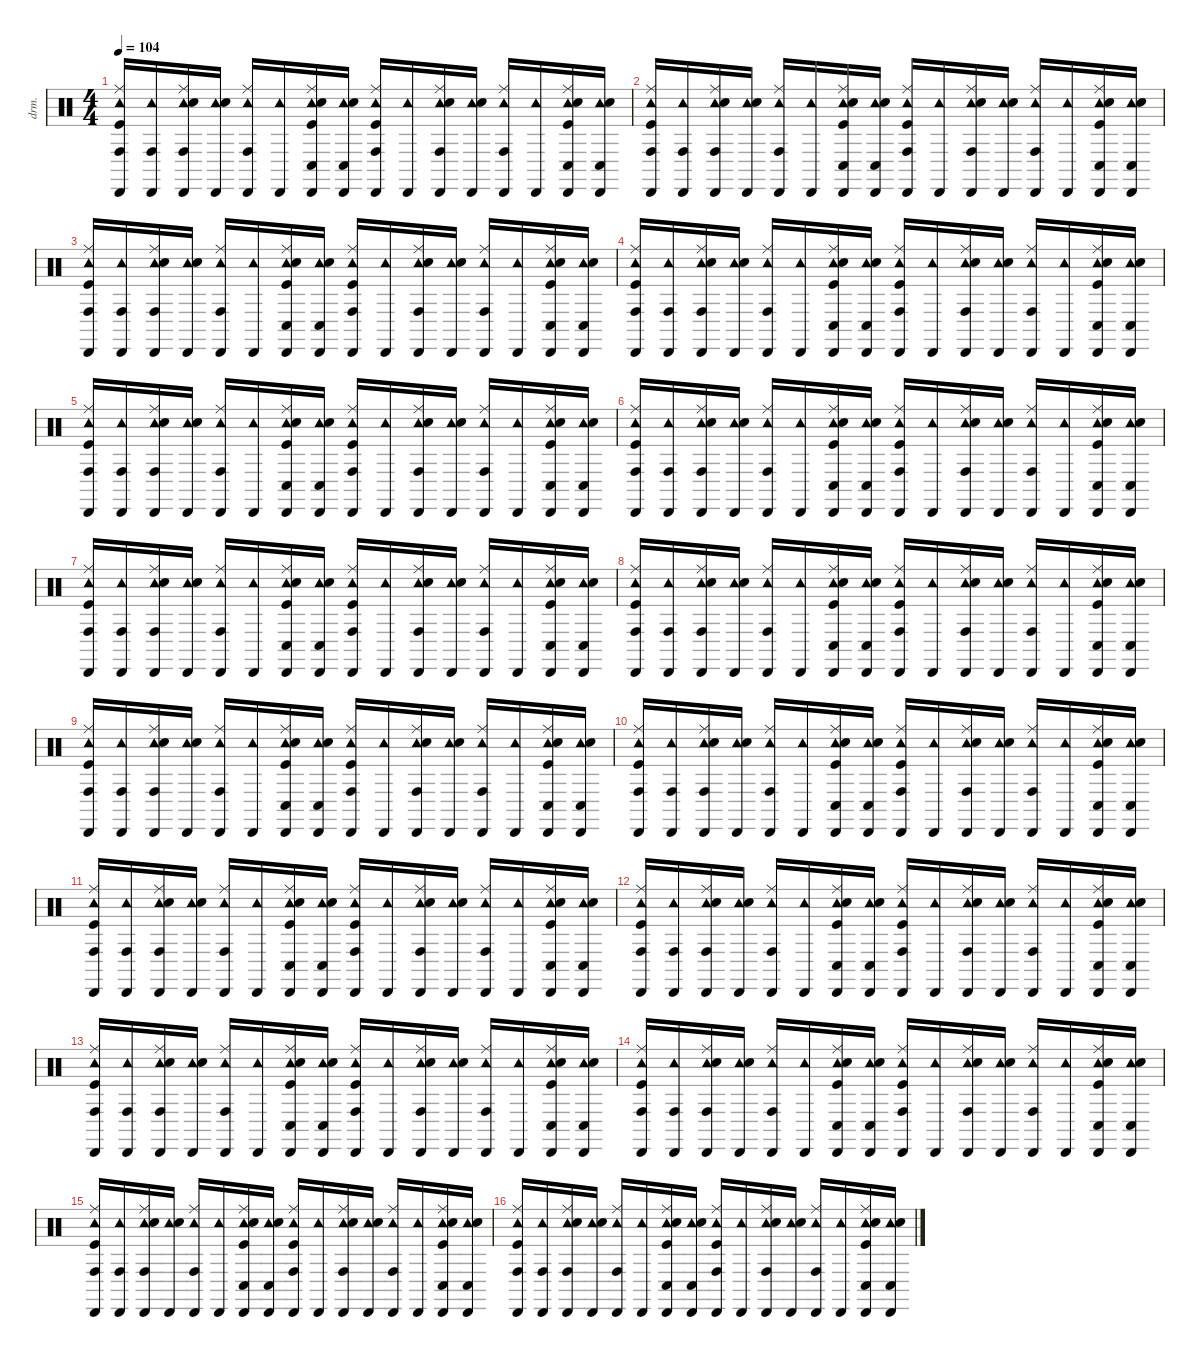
\defaultSystemsLayout 4
\hideDynamics
\bracketExtendMode nobrackets
\otherSystemsTrackNameOrientation horizontal
\track ("Drums" "drm.") {instrument percussion}
\staff {score}
\articulation defaults
\ts (4 4)
\tempo 104
\clef neutral
\ks c
("Cabasa (hit)" "Conga high (hit)" "Tambourine (hit)" "Ride (middle)" "Kick (hit)").16{dy f beam Up} ("Cabasa (hit)" "Conga high (hit)" "Tambourine (hit)").16{beam Up} ("Cabasa (hit)" "Conga high (hit)" "Tambourine (hit)" "Ride (middle)" "Snare (hit) 2").16{beam Up} ("Cabasa (hit)" "Tambourine (hit)" "Snare (hit) 2").16{beam Up} ("Cabasa (hit)" "Conga high (hit)" "Tambourine (hit)" "Ride (middle)").16{beam Up} ("Cabasa (hit)" "Tambourine (hit)").16{beam Up} ("Cabasa (hit)" "Conga low (hit)" "Tambourine (hit)" "Ride (middle)" "Snare (hit) 2" "Kick (hit)").16{beam Up} ("Cabasa (hit)" "Conga low (hit)" "Tambourine (hit)" "Snare (hit) 2").16{beam Up} ("Cabasa (hit)" "Conga high (hit)" "Tambourine (hit)" "Ride (middle)" "Kick (hit)").16{beam Up} ("Cabasa (hit)" "Tambourine (hit)").16{beam Up} ("Cabasa (hit)" "Conga high (hit)" "Tambourine (hit)" "Ride (middle)" "Snare (hit) 2").16{beam Up} ("Cabasa (hit)" "Tambourine (hit)" "Snare (hit) 2").16{beam Up} ("Cabasa (hit)" "Conga high (hit)" "Tambourine (hit)" "Ride (middle)").16{beam Up} ("Cabasa (hit)" "Tambourine (hit)").16{beam Up} ("Cabasa (hit)" "Conga low (hit)" "Tambourine (hit)" "Ride (middle)" "Snare (hit) 2" "Kick (hit)").16{beam Up} ("Cabasa (hit)" "Conga low (hit)" "Tambourine (hit)" "Snare (hit) 2").16{beam Up} |
("Cabasa (hit)" "Conga high (hit)" "Tambourine (hit)" "Ride (middle)" "Kick (hit)").16{beam Up} ("Cabasa (hit)" "Conga high (hit)" "Tambourine (hit)").16{beam Up} ("Cabasa (hit)" "Conga high (hit)" "Tambourine (hit)" "Ride (middle)" "Snare (hit) 2").16{beam Up} ("Cabasa (hit)" "Tambourine (hit)" "Snare (hit) 2").16{beam Up} ("Cabasa (hit)" "Conga high (hit)" "Tambourine (hit)" "Ride (middle)").16{beam Up} ("Cabasa (hit)" "Tambourine (hit)").16{beam Up} ("Cabasa (hit)" "Conga low (hit)" "Tambourine (hit)" "Ride (middle)" "Snare (hit) 2" "Kick (hit)").16{beam Up} ("Cabasa (hit)" "Conga low (hit)" "Tambourine (hit)" "Snare (hit) 2").16{beam Up} ("Cabasa (hit)" "Conga high (hit)" "Tambourine (hit)" "Ride (middle)" "Kick (hit)").16{beam Up} ("Cabasa (hit)" "Tambourine (hit)").16{beam Up} ("Cabasa (hit)" "Conga high (hit)" "Tambourine (hit)" "Ride (middle)" "Snare (hit) 2").16{beam Up} ("Cabasa (hit)" "Tambourine (hit)" "Snare (hit) 2").16{beam Up} ("Cabasa (hit)" "Conga high (hit)" "Tambourine (hit)" "Ride (middle)").16{beam Up} ("Cabasa (hit)" "Tambourine (hit)").16{beam Up} ("Cabasa (hit)" "Conga low (hit)" "Tambourine (hit)" "Ride (middle)" "Snare (hit) 2" "Kick (hit)").16{beam Up} ("Cabasa (hit)" "Conga low (hit)" "Tambourine (hit)" "Snare (hit) 2").16{beam Up} |
("Cabasa (hit)" "Conga high (hit)" "Tambourine (hit)" "Ride (middle)" "Kick (hit)").16{beam Up} ("Cabasa (hit)" "Conga high (hit)" "Tambourine (hit)").16{beam Up} ("Cabasa (hit)" "Conga high (hit)" "Tambourine (hit)" "Ride (middle)" "Snare (hit) 2").16{beam Up} ("Cabasa (hit)" "Tambourine (hit)" "Snare (hit) 2").16{beam Up} ("Cabasa (hit)" "Conga high (hit)" "Tambourine (hit)" "Ride (middle)").16{beam Up} ("Cabasa (hit)" "Tambourine (hit)").16{beam Up} ("Cabasa (hit)" "Conga low (hit)" "Tambourine (hit)" "Ride (middle)" "Snare (hit) 2" "Kick (hit)").16{beam Up} ("Cabasa (hit)" "Conga low (hit)" "Tambourine (hit)" "Snare (hit) 2").16{beam Up} ("Cabasa (hit)" "Conga high (hit)" "Tambourine (hit)" "Ride (middle)" "Kick (hit)").16{beam Up} ("Cabasa (hit)" "Tambourine (hit)").16{beam Up} ("Cabasa (hit)" "Conga high (hit)" "Tambourine (hit)" "Ride (middle)" "Snare (hit) 2").16{beam Up} ("Cabasa (hit)" "Tambourine (hit)" "Snare (hit) 2").16{beam Up} ("Cabasa (hit)" "Conga high (hit)" "Tambourine (hit)" "Ride (middle)").16{beam Up} ("Cabasa (hit)" "Tambourine (hit)").16{beam Up} ("Cabasa (hit)" "Conga low (hit)" "Tambourine (hit)" "Ride (middle)" "Snare (hit) 2" "Kick (hit)").16{beam Up} ("Cabasa (hit)" "Conga low (hit)" "Tambourine (hit)" "Snare (hit) 2").16{beam Up} |
("Cabasa (hit)" "Conga high (hit)" "Tambourine (hit)" "Ride (middle)" "Kick (hit)").16{beam Up} ("Cabasa (hit)" "Conga high (hit)" "Tambourine (hit)").16{beam Up} ("Cabasa (hit)" "Conga high (hit)" "Tambourine (hit)" "Ride (middle)" "Snare (hit) 2").16{beam Up} ("Cabasa (hit)" "Tambourine (hit)" "Snare (hit) 2").16{beam Up} ("Cabasa (hit)" "Conga high (hit)" "Tambourine (hit)" "Ride (middle)").16{beam Up} ("Cabasa (hit)" "Tambourine (hit)").16{beam Up} ("Cabasa (hit)" "Conga low (hit)" "Tambourine (hit)" "Ride (middle)" "Snare (hit) 2" "Kick (hit)").16{beam Up} ("Cabasa (hit)" "Conga low (hit)" "Tambourine (hit)" "Snare (hit) 2").16{beam Up} ("Cabasa (hit)" "Conga high (hit)" "Tambourine (hit)" "Ride (middle)" "Kick (hit)").16{beam Up} ("Cabasa (hit)" "Tambourine (hit)").16{beam Up} ("Cabasa (hit)" "Conga high (hit)" "Tambourine (hit)" "Ride (middle)" "Snare (hit) 2").16{beam Up} ("Cabasa (hit)" "Tambourine (hit)" "Snare (hit) 2").16{beam Up} ("Cabasa (hit)" "Conga high (hit)" "Tambourine (hit)" "Ride (middle)").16{beam Up} ("Cabasa (hit)" "Tambourine (hit)").16{beam Up} ("Cabasa (hit)" "Conga low (hit)" "Tambourine (hit)" "Ride (middle)" "Snare (hit) 2" "Kick (hit)").16{beam Up} ("Cabasa (hit)" "Conga low (hit)" "Tambourine (hit)" "Snare (hit) 2").16{beam Up} |
("Cabasa (hit)" "Conga high (hit)" "Tambourine (hit)" "Ride (middle)" "Kick (hit)").16{beam Up} ("Cabasa (hit)" "Conga high (hit)" "Tambourine (hit)").16{beam Up} ("Cabasa (hit)" "Conga high (hit)" "Tambourine (hit)" "Ride (middle)" "Snare (hit) 2").16{beam Up} ("Cabasa (hit)" "Tambourine (hit)" "Snare (hit) 2").16{beam Up} ("Cabasa (hit)" "Conga high (hit)" "Tambourine (hit)" "Ride (middle)").16{beam Up} ("Cabasa (hit)" "Tambourine (hit)").16{beam Up} ("Cabasa (hit)" "Conga low (hit)" "Tambourine (hit)" "Ride (middle)" "Snare (hit) 2" "Kick (hit)").16{beam Up} ("Cabasa (hit)" "Conga low (hit)" "Tambourine (hit)" "Snare (hit) 2").16{beam Up} ("Cabasa (hit)" "Conga high (hit)" "Tambourine (hit)" "Ride (middle)" "Kick (hit)").16{beam Up} ("Cabasa (hit)" "Tambourine (hit)").16{beam Up} ("Cabasa (hit)" "Conga high (hit)" "Tambourine (hit)" "Ride (middle)" "Snare (hit) 2").16{beam Up} ("Cabasa (hit)" "Tambourine (hit)" "Snare (hit) 2").16{beam Up} ("Cabasa (hit)" "Conga high (hit)" "Tambourine (hit)" "Ride (middle)").16{beam Up} ("Cabasa (hit)" "Tambourine (hit)").16{beam Up} ("Cabasa (hit)" "Conga low (hit)" "Tambourine (hit)" "Ride (middle)" "Snare (hit) 2" "Kick (hit)").16{beam Up} ("Cabasa (hit)" "Conga low (hit)" "Tambourine (hit)" "Snare (hit) 2").16{beam Up} |
("Cabasa (hit)" "Conga high (hit)" "Tambourine (hit)" "Ride (middle)" "Kick (hit)").16{beam Up} ("Cabasa (hit)" "Conga high (hit)" "Tambourine (hit)").16{beam Up} ("Cabasa (hit)" "Conga high (hit)" "Tambourine (hit)" "Ride (middle)" "Snare (hit) 2").16{beam Up} ("Cabasa (hit)" "Tambourine (hit)" "Snare (hit) 2").16{beam Up} ("Cabasa (hit)" "Conga high (hit)" "Tambourine (hit)" "Ride (middle)").16{beam Up} ("Cabasa (hit)" "Tambourine (hit)").16{beam Up} ("Cabasa (hit)" "Conga low (hit)" "Tambourine (hit)" "Ride (middle)" "Snare (hit) 2" "Kick (hit)").16{beam Up} ("Cabasa (hit)" "Conga low (hit)" "Tambourine (hit)" "Snare (hit) 2").16{beam Up} ("Cabasa (hit)" "Conga high (hit)" "Tambourine (hit)" "Ride (middle)" "Kick (hit)").16{beam Up} ("Cabasa (hit)" "Tambourine (hit)").16{beam Up} ("Cabasa (hit)" "Conga high (hit)" "Tambourine (hit)" "Ride (middle)" "Snare (hit) 2").16{beam Up} ("Cabasa (hit)" "Tambourine (hit)" "Snare (hit) 2").16{beam Up} ("Cabasa (hit)" "Conga high (hit)" "Tambourine (hit)" "Ride (middle)").16{beam Up} ("Cabasa (hit)" "Tambourine (hit)").16{beam Up} ("Cabasa (hit)" "Conga low (hit)" "Tambourine (hit)" "Ride (middle)" "Snare (hit) 2" "Kick (hit)").16{beam Up} ("Cabasa (hit)" "Conga low (hit)" "Tambourine (hit)" "Snare (hit) 2").16{beam Up} |
("Cabasa (hit)" "Conga high (hit)" "Tambourine (hit)" "Ride (middle)" "Kick (hit)").16{beam Up} ("Cabasa (hit)" "Conga high (hit)" "Tambourine (hit)").16{beam Up} ("Cabasa (hit)" "Conga high (hit)" "Tambourine (hit)" "Ride (middle)" "Snare (hit) 2").16{beam Up} ("Cabasa (hit)" "Tambourine (hit)" "Snare (hit) 2").16{beam Up} ("Cabasa (hit)" "Conga high (hit)" "Tambourine (hit)" "Ride (middle)").16{beam Up} ("Cabasa (hit)" "Tambourine (hit)").16{beam Up} ("Cabasa (hit)" "Conga low (hit)" "Tambourine (hit)" "Ride (middle)" "Snare (hit) 2" "Kick (hit)").16{beam Up} ("Cabasa (hit)" "Conga low (hit)" "Tambourine (hit)" "Snare (hit) 2").16{beam Up} ("Cabasa (hit)" "Conga high (hit)" "Tambourine (hit)" "Ride (middle)" "Kick (hit)").16{beam Up} ("Cabasa (hit)" "Tambourine (hit)").16{beam Up} ("Cabasa (hit)" "Conga high (hit)" "Tambourine (hit)" "Ride (middle)" "Snare (hit) 2").16{beam Up} ("Cabasa (hit)" "Tambourine (hit)" "Snare (hit) 2").16{beam Up} ("Cabasa (hit)" "Conga high (hit)" "Tambourine (hit)" "Ride (middle)").16{beam Up} ("Cabasa (hit)" "Tambourine (hit)").16{beam Up} ("Cabasa (hit)" "Conga low (hit)" "Tambourine (hit)" "Ride (middle)" "Snare (hit) 2" "Kick (hit)").16{beam Up} ("Cabasa (hit)" "Conga low (hit)" "Tambourine (hit)" "Snare (hit) 2").16{beam Up} |
("Cabasa (hit)" "Conga high (hit)" "Tambourine (hit)" "Ride (middle)" "Kick (hit)").16{beam Up} ("Cabasa (hit)" "Conga high (hit)" "Tambourine (hit)").16{beam Up} ("Cabasa (hit)" "Conga high (hit)" "Tambourine (hit)" "Ride (middle)" "Snare (hit) 2").16{beam Up} ("Cabasa (hit)" "Tambourine (hit)" "Snare (hit) 2").16{beam Up} ("Cabasa (hit)" "Conga high (hit)" "Tambourine (hit)" "Ride (middle)").16{beam Up} ("Cabasa (hit)" "Tambourine (hit)").16{beam Up} ("Cabasa (hit)" "Conga low (hit)" "Tambourine (hit)" "Ride (middle)" "Snare (hit) 2" "Kick (hit)").16{beam Up} ("Cabasa (hit)" "Conga low (hit)" "Tambourine (hit)" "Snare (hit) 2").16{beam Up} ("Cabasa (hit)" "Conga high (hit)" "Tambourine (hit)" "Ride (middle)" "Kick (hit)").16{beam Up} ("Cabasa (hit)" "Tambourine (hit)").16{beam Up} ("Cabasa (hit)" "Conga high (hit)" "Tambourine (hit)" "Ride (middle)" "Snare (hit) 2").16{beam Up} ("Cabasa (hit)" "Tambourine (hit)" "Snare (hit) 2").16{beam Up} ("Cabasa (hit)" "Conga high (hit)" "Tambourine (hit)" "Ride (middle)").16{beam Up} ("Cabasa (hit)" "Tambourine (hit)").16{beam Up} ("Cabasa (hit)" "Conga low (hit)" "Tambourine (hit)" "Ride (middle)" "Snare (hit) 2" "Kick (hit)").16{beam Up} ("Cabasa (hit)" "Conga low (hit)" "Tambourine (hit)" "Snare (hit) 2").16{beam Up} |
("Cabasa (hit)" "Conga high (hit)" "Tambourine (hit)" "Ride (middle)" "Kick (hit)").16{beam Up} ("Cabasa (hit)" "Conga high (hit)" "Tambourine (hit)").16{beam Up} ("Cabasa (hit)" "Conga high (hit)" "Tambourine (hit)" "Ride (middle)" "Snare (hit) 2").16{beam Up} ("Cabasa (hit)" "Tambourine (hit)" "Snare (hit) 2").16{beam Up} ("Cabasa (hit)" "Conga high (hit)" "Tambourine (hit)" "Ride (middle)").16{beam Up} ("Cabasa (hit)" "Tambourine (hit)").16{beam Up} ("Cabasa (hit)" "Conga low (hit)" "Tambourine (hit)" "Ride (middle)" "Snare (hit) 2" "Kick (hit)").16{beam Up} ("Cabasa (hit)" "Conga low (hit)" "Tambourine (hit)" "Snare (hit) 2").16{beam Up} ("Cabasa (hit)" "Conga high (hit)" "Tambourine (hit)" "Ride (middle)" "Kick (hit)").16{beam Up} ("Cabasa (hit)" "Tambourine (hit)").16{beam Up} ("Cabasa (hit)" "Conga high (hit)" "Tambourine (hit)" "Ride (middle)" "Snare (hit) 2").16{beam Up} ("Cabasa (hit)" "Tambourine (hit)" "Snare (hit) 2").16{beam Up} ("Cabasa (hit)" "Conga high (hit)" "Tambourine (hit)" "Ride (middle)").16{beam Up} ("Cabasa (hit)" "Tambourine (hit)").16{beam Up} ("Cabasa (hit)" "Conga low (hit)" "Tambourine (hit)" "Ride (middle)" "Snare (hit) 2" "Kick (hit)").16{beam Up} ("Cabasa (hit)" "Conga low (hit)" "Tambourine (hit)" "Snare (hit) 2").16{beam Up} |
("Cabasa (hit)" "Conga high (hit)" "Tambourine (hit)" "Ride (middle)" "Kick (hit)").16{beam Up} ("Cabasa (hit)" "Conga high (hit)" "Tambourine (hit)").16{beam Up} ("Cabasa (hit)" "Conga high (hit)" "Tambourine (hit)" "Ride (middle)" "Snare (hit) 2").16{beam Up} ("Cabasa (hit)" "Tambourine (hit)" "Snare (hit) 2").16{beam Up} ("Cabasa (hit)" "Conga high (hit)" "Tambourine (hit)" "Ride (middle)").16{beam Up} ("Cabasa (hit)" "Tambourine (hit)").16{beam Up} ("Cabasa (hit)" "Conga low (hit)" "Tambourine (hit)" "Ride (middle)" "Snare (hit) 2" "Kick (hit)").16{beam Up} ("Cabasa (hit)" "Conga low (hit)" "Tambourine (hit)" "Snare (hit) 2").16{beam Up} ("Cabasa (hit)" "Conga high (hit)" "Tambourine (hit)" "Ride (middle)" "Kick (hit)").16{beam Up} ("Cabasa (hit)" "Tambourine (hit)").16{beam Up} ("Cabasa (hit)" "Conga high (hit)" "Tambourine (hit)" "Ride (middle)" "Snare (hit) 2").16{beam Up} ("Cabasa (hit)" "Tambourine (hit)" "Snare (hit) 2").16{beam Up} ("Cabasa (hit)" "Conga high (hit)" "Tambourine (hit)" "Ride (middle)").16{beam Up} ("Cabasa (hit)" "Tambourine (hit)").16{beam Up} ("Cabasa (hit)" "Conga low (hit)" "Tambourine (hit)" "Ride (middle)" "Snare (hit) 2" "Kick (hit)").16{beam Up} ("Cabasa (hit)" "Conga low (hit)" "Tambourine (hit)" "Snare (hit) 2").16{beam Up} |
("Cabasa (hit)" "Conga high (hit)" "Tambourine (hit)" "Ride (middle)" "Kick (hit)").16{beam Up} ("Cabasa (hit)" "Conga high (hit)" "Tambourine (hit)").16{beam Up} ("Cabasa (hit)" "Conga high (hit)" "Tambourine (hit)" "Ride (middle)" "Snare (hit) 2").16{beam Up} ("Cabasa (hit)" "Tambourine (hit)" "Snare (hit) 2").16{beam Up} ("Cabasa (hit)" "Conga high (hit)" "Tambourine (hit)" "Ride (middle)").16{beam Up} ("Cabasa (hit)" "Tambourine (hit)").16{beam Up} ("Cabasa (hit)" "Conga low (hit)" "Tambourine (hit)" "Ride (middle)" "Snare (hit) 2" "Kick (hit)").16{beam Up} ("Cabasa (hit)" "Conga low (hit)" "Tambourine (hit)" "Snare (hit) 2").16{beam Up} ("Cabasa (hit)" "Conga high (hit)" "Tambourine (hit)" "Ride (middle)" "Kick (hit)").16{beam Up} ("Cabasa (hit)" "Tambourine (hit)").16{beam Up} ("Cabasa (hit)" "Conga high (hit)" "Tambourine (hit)" "Ride (middle)" "Snare (hit) 2").16{beam Up} ("Cabasa (hit)" "Tambourine (hit)" "Snare (hit) 2").16{beam Up} ("Cabasa (hit)" "Conga high (hit)" "Tambourine (hit)" "Ride (middle)").16{beam Up} ("Cabasa (hit)" "Tambourine (hit)").16{beam Up} ("Cabasa (hit)" "Conga low (hit)" "Tambourine (hit)" "Ride (middle)" "Snare (hit) 2" "Kick (hit)").16{beam Up} ("Cabasa (hit)" "Conga low (hit)" "Tambourine (hit)" "Snare (hit) 2").16{beam Up} |
("Cabasa (hit)" "Conga high (hit)" "Tambourine (hit)" "Ride (middle)" "Kick (hit)").16{beam Up} ("Cabasa (hit)" "Conga high (hit)" "Tambourine (hit)").16{beam Up} ("Cabasa (hit)" "Conga high (hit)" "Tambourine (hit)" "Ride (middle)" "Snare (hit) 2").16{beam Up} ("Cabasa (hit)" "Tambourine (hit)" "Snare (hit) 2").16{beam Up} ("Cabasa (hit)" "Conga high (hit)" "Tambourine (hit)" "Ride (middle)").16{beam Up} ("Cabasa (hit)" "Tambourine (hit)").16{beam Up} ("Cabasa (hit)" "Conga low (hit)" "Tambourine (hit)" "Ride (middle)" "Snare (hit) 2" "Kick (hit)").16{beam Up} ("Cabasa (hit)" "Conga low (hit)" "Tambourine (hit)" "Snare (hit) 2").16{beam Up} ("Cabasa (hit)" "Conga high (hit)" "Tambourine (hit)" "Ride (middle)" "Kick (hit)").16{beam Up} ("Cabasa (hit)" "Tambourine (hit)").16{beam Up} ("Cabasa (hit)" "Conga high (hit)" "Tambourine (hit)" "Ride (middle)" "Snare (hit) 2").16{beam Up} ("Cabasa (hit)" "Tambourine (hit)" "Snare (hit) 2").16{beam Up} ("Cabasa (hit)" "Conga high (hit)" "Tambourine (hit)" "Ride (middle)").16{beam Up} ("Cabasa (hit)" "Tambourine (hit)").16{beam Up} ("Cabasa (hit)" "Conga low (hit)" "Tambourine (hit)" "Ride (middle)" "Snare (hit) 2" "Kick (hit)").16{beam Up} ("Cabasa (hit)" "Conga low (hit)" "Tambourine (hit)" "Snare (hit) 2").16{beam Up} |
("Cabasa (hit)" "Conga high (hit)" "Tambourine (hit)" "Ride (middle)" "Kick (hit)").16{beam Up} ("Cabasa (hit)" "Conga high (hit)" "Tambourine (hit)").16{beam Up} ("Cabasa (hit)" "Conga high (hit)" "Tambourine (hit)" "Ride (middle)" "Snare (hit) 2").16{beam Up} ("Cabasa (hit)" "Tambourine (hit)" "Snare (hit) 2").16{beam Up} ("Cabasa (hit)" "Conga high (hit)" "Tambourine (hit)" "Ride (middle)").16{beam Up} ("Cabasa (hit)" "Tambourine (hit)").16{beam Up} ("Cabasa (hit)" "Conga low (hit)" "Tambourine (hit)" "Ride (middle)" "Snare (hit) 2" "Kick (hit)").16{beam Up} ("Cabasa (hit)" "Conga low (hit)" "Tambourine (hit)" "Snare (hit) 2").16{beam Up} ("Cabasa (hit)" "Conga high (hit)" "Tambourine (hit)" "Ride (middle)" "Kick (hit)").16{beam Up} ("Cabasa (hit)" "Tambourine (hit)").16{beam Up} ("Cabasa (hit)" "Conga high (hit)" "Tambourine (hit)" "Ride (middle)" "Snare (hit) 2").16{beam Up} ("Cabasa (hit)" "Tambourine (hit)" "Snare (hit) 2").16{beam Up} ("Cabasa (hit)" "Conga high (hit)" "Tambourine (hit)" "Ride (middle)").16{beam Up} ("Cabasa (hit)" "Tambourine (hit)").16{beam Up} ("Cabasa (hit)" "Conga low (hit)" "Tambourine (hit)" "Ride (middle)" "Snare (hit) 2" "Kick (hit)").16{beam Up} ("Cabasa (hit)" "Conga low (hit)" "Tambourine (hit)" "Snare (hit) 2").16{beam Up} |
("Cabasa (hit)" "Conga high (hit)" "Tambourine (hit)" "Ride (middle)" "Kick (hit)").16{beam Up} ("Cabasa (hit)" "Conga high (hit)" "Tambourine (hit)").16{beam Up} ("Cabasa (hit)" "Conga high (hit)" "Tambourine (hit)" "Ride (middle)" "Snare (hit) 2").16{beam Up} ("Cabasa (hit)" "Tambourine (hit)" "Snare (hit) 2").16{beam Up} ("Cabasa (hit)" "Conga high (hit)" "Tambourine (hit)" "Ride (middle)").16{beam Up} ("Cabasa (hit)" "Tambourine (hit)").16{beam Up} ("Cabasa (hit)" "Conga low (hit)" "Tambourine (hit)" "Ride (middle)" "Snare (hit) 2" "Kick (hit)").16{beam Up} ("Cabasa (hit)" "Conga low (hit)" "Tambourine (hit)" "Snare (hit) 2").16{beam Up} ("Cabasa (hit)" "Conga high (hit)" "Tambourine (hit)" "Ride (middle)" "Kick (hit)").16{beam Up} ("Cabasa (hit)" "Tambourine (hit)").16{beam Up} ("Cabasa (hit)" "Conga high (hit)" "Tambourine (hit)" "Ride (middle)" "Snare (hit) 2").16{beam Up} ("Cabasa (hit)" "Tambourine (hit)" "Snare (hit) 2").16{beam Up} ("Cabasa (hit)" "Conga high (hit)" "Tambourine (hit)" "Ride (middle)").16{beam Up} ("Cabasa (hit)" "Tambourine (hit)").16{beam Up} ("Cabasa (hit)" "Conga low (hit)" "Tambourine (hit)" "Ride (middle)" "Snare (hit) 2" "Kick (hit)").16{beam Up} ("Cabasa (hit)" "Conga low (hit)" "Tambourine (hit)" "Snare (hit) 2").16{beam Up} |
("Cabasa (hit)" "Conga high (hit)" "Tambourine (hit)" "Ride (middle)" "Kick (hit)").16{beam Up} ("Cabasa (hit)" "Conga high (hit)" "Tambourine (hit)").16{beam Up} ("Cabasa (hit)" "Conga high (hit)" "Tambourine (hit)" "Ride (middle)" "Snare (hit) 2").16{beam Up} ("Cabasa (hit)" "Tambourine (hit)" "Snare (hit) 2").16{beam Up} ("Cabasa (hit)" "Conga high (hit)" "Tambourine (hit)" "Ride (middle)").16{beam Up} ("Cabasa (hit)" "Tambourine (hit)").16{beam Up} ("Cabasa (hit)" "Conga low (hit)" "Tambourine (hit)" "Ride (middle)" "Snare (hit) 2" "Kick (hit)").16{beam Up} ("Cabasa (hit)" "Conga low (hit)" "Tambourine (hit)" "Snare (hit) 2").16{beam Up} ("Cabasa (hit)" "Conga high (hit)" "Tambourine (hit)" "Ride (middle)" "Kick (hit)").16{beam Up} ("Cabasa (hit)" "Tambourine (hit)").16{beam Up} ("Cabasa (hit)" "Conga high (hit)" "Tambourine (hit)" "Ride (middle)" "Snare (hit) 2").16{beam Up} ("Cabasa (hit)" "Tambourine (hit)" "Snare (hit) 2").16{beam Up} ("Cabasa (hit)" "Conga high (hit)" "Tambourine (hit)" "Ride (middle)").16{beam Up} ("Cabasa (hit)" "Tambourine (hit)").16{beam Up} ("Cabasa (hit)" "Conga low (hit)" "Tambourine (hit)" "Ride (middle)" "Snare (hit) 2" "Kick (hit)").16{beam Up} ("Cabasa (hit)" "Conga low (hit)" "Tambourine (hit)" "Snare (hit) 2").16{beam Up} |
("Cabasa (hit)" "Conga high (hit)" "Tambourine (hit)" "Ride (middle)" "Kick (hit)").16{beam Up} ("Cabasa (hit)" "Conga high (hit)" "Tambourine (hit)").16{beam Up} ("Cabasa (hit)" "Conga high (hit)" "Tambourine (hit)" "Ride (middle)" "Snare (hit) 2").16{beam Up} ("Cabasa (hit)" "Tambourine (hit)" "Snare (hit) 2").16{beam Up} ("Cabasa (hit)" "Conga high (hit)" "Tambourine (hit)" "Ride (middle)").16{beam Up} ("Cabasa (hit)" "Tambourine (hit)").16{beam Up} ("Cabasa (hit)" "Conga low (hit)" "Tambourine (hit)" "Ride (middle)" "Snare (hit) 2" "Kick (hit)").16{beam Up} ("Cabasa (hit)" "Conga low (hit)" "Tambourine (hit)" "Snare (hit) 2").16{beam Up} ("Cabasa (hit)" "Conga high (hit)" "Tambourine (hit)" "Ride (middle)" "Kick (hit)").16{beam Up} ("Cabasa (hit)" "Tambourine (hit)").16{beam Up} ("Cabasa (hit)" "Conga high (hit)" "Tambourine (hit)" "Ride (middle)" "Snare (hit) 2").16{beam Up} ("Cabasa (hit)" "Tambourine (hit)" "Snare (hit) 2").16{beam Up} ("Cabasa (hit)" "Conga high (hit)" "Tambourine (hit)" "Ride (middle)").16{beam Up} ("Cabasa (hit)" "Tambourine (hit)").16{beam Up} ("Cabasa (hit)" "Conga low (hit)" "Tambourine (hit)" "Ride (middle)" "Snare (hit) 2" "Kick (hit)").16{beam Up} ("Cabasa (hit)" "Conga low (hit)" "Tambourine (hit)" "Snare (hit) 2").16{beam Up}
